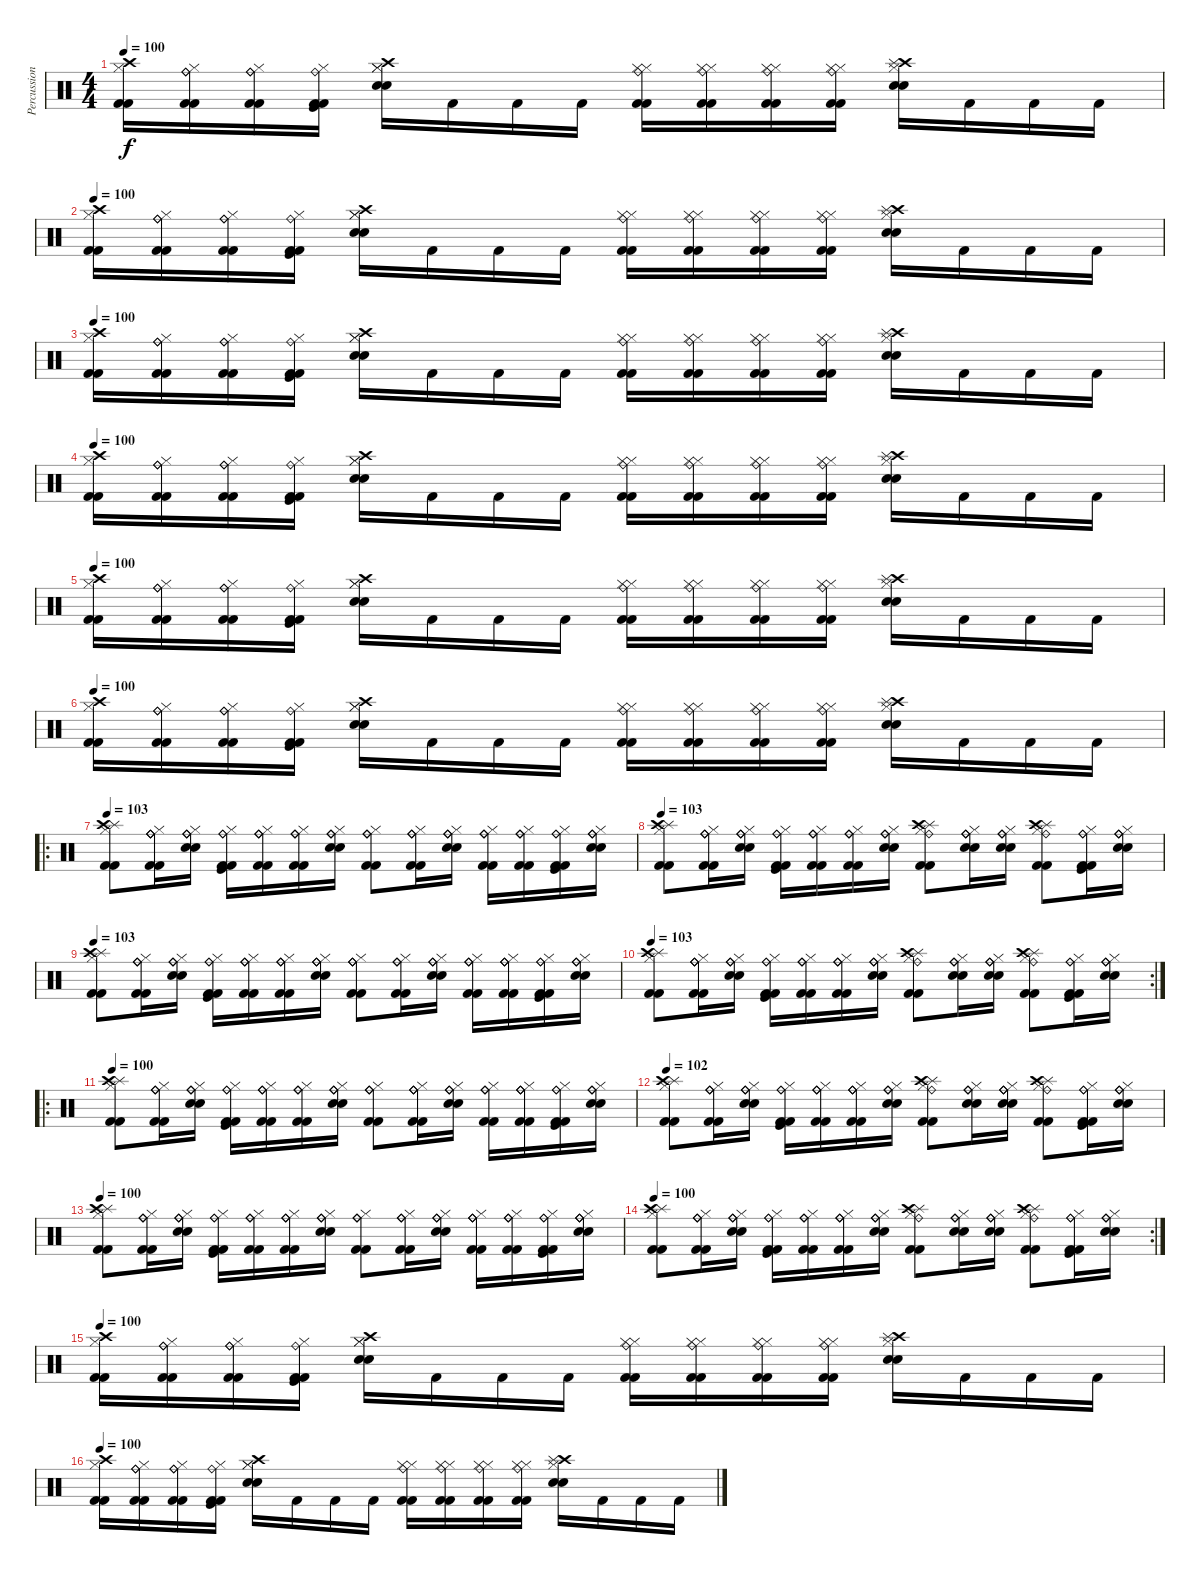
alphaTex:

\track ("Percussion" "Percussion") {instrument percussion}
\staff {score}
\articulation defaults
\ts (4 4)
\tempo 100
\clef neutral
\ks c
("Crash high (hit)" "Hi-Hat (closed)" "Kick (hit) 2" "Kick (hit) 2").16{dy f} ("Ride (bell)" "Ride (bell)" "Hi-Hat (closed)" "Kick (hit) 2" "Kick (hit) 2").16 ("Ride (bell)" "Ride (bell)" "Hi-Hat (closed)" "Kick (hit) 2" "Kick (hit) 2").16 ("Ride (bell)" "Kick (hit)" "Hi-Hat (closed)" "Kick (hit) 2" "Kick (hit) 2").16 ("Crash high (hit)" "Hi-Hat (closed)" "Hi-Hat (closed)" "Snare (hit) 2" "Snare (hit) 2").16 "Kick (hit) 2".16 "Kick (hit) 2".16 "Kick (hit) 2".16 ("Ride (bell)" "Hi-Hat (closed)" "Hi-Hat (closed)" "Kick (hit) 2" "Kick (hit) 2").16 ("Ride (bell)" "Hi-Hat (closed)" "Hi-Hat (closed)" "Kick (hit) 2" "Kick (hit) 2").16 ("Ride (bell)" "Hi-Hat (closed)" "Hi-Hat (closed)" "Kick (hit) 2" "Kick (hit) 2").16 ("Ride (bell)" "Hi-Hat (closed)" "Hi-Hat (closed)" "Kick (hit) 2" "Kick (hit) 2").16 ("Crash high (hit)" "Splash (hit)" "Hi-Hat (closed)" "Snare (hit) 2" "Snare (hit) 2").16 "Kick (hit) 2".16 "Kick (hit) 2".16 "Kick (hit) 2".16 |
\tempo 100
("Crash high (hit)" "Hi-Hat (closed)" "Kick (hit) 2" "Kick (hit) 2").16 ("Ride (bell)" "Ride (bell)" "Hi-Hat (closed)" "Kick (hit) 2" "Kick (hit) 2").16 ("Ride (bell)" "Ride (bell)" "Hi-Hat (closed)" "Kick (hit) 2" "Kick (hit) 2").16 ("Ride (bell)" "Kick (hit)" "Hi-Hat (closed)" "Kick (hit) 2" "Kick (hit) 2").16 ("Crash high (hit)" "Hi-Hat (closed)" "Hi-Hat (closed)" "Snare (hit) 2" "Snare (hit) 2").16 "Kick (hit) 2".16 "Kick (hit) 2".16 "Kick (hit) 2".16 ("Ride (bell)" "Hi-Hat (closed)" "Hi-Hat (closed)" "Kick (hit) 2" "Kick (hit) 2").16 ("Ride (bell)" "Hi-Hat (closed)" "Hi-Hat (closed)" "Kick (hit) 2" "Kick (hit) 2").16 ("Ride (bell)" "Hi-Hat (closed)" "Hi-Hat (closed)" "Kick (hit) 2" "Kick (hit) 2").16 ("Ride (bell)" "Hi-Hat (closed)" "Hi-Hat (closed)" "Kick (hit) 2" "Kick (hit) 2").16 ("Crash high (hit)" "Splash (hit)" "Hi-Hat (closed)" "Snare (hit) 2" "Snare (hit) 2").16 "Kick (hit) 2".16 "Kick (hit) 2".16 "Kick (hit) 2".16 |
\tempo 100
("Crash high (hit)" "Hi-Hat (closed)" "Kick (hit) 2" "Kick (hit) 2").16 ("Ride (bell)" "Ride (bell)" "Hi-Hat (closed)" "Kick (hit) 2" "Kick (hit) 2").16 ("Ride (bell)" "Ride (bell)" "Hi-Hat (closed)" "Kick (hit) 2" "Kick (hit) 2").16 ("Ride (bell)" "Kick (hit)" "Hi-Hat (closed)" "Kick (hit) 2" "Kick (hit) 2").16 ("Crash high (hit)" "Hi-Hat (closed)" "Hi-Hat (closed)" "Snare (hit) 2" "Snare (hit) 2").16 "Kick (hit) 2".16 "Kick (hit) 2".16 "Kick (hit) 2".16 ("Ride (bell)" "Hi-Hat (closed)" "Hi-Hat (closed)" "Kick (hit) 2" "Kick (hit) 2").16 ("Ride (bell)" "Hi-Hat (closed)" "Hi-Hat (closed)" "Kick (hit) 2" "Kick (hit) 2").16 ("Ride (bell)" "Hi-Hat (closed)" "Hi-Hat (closed)" "Kick (hit) 2" "Kick (hit) 2").16 ("Ride (bell)" "Hi-Hat (closed)" "Hi-Hat (closed)" "Kick (hit) 2" "Kick (hit) 2").16 ("Crash high (hit)" "Splash (hit)" "Hi-Hat (closed)" "Snare (hit) 2" "Snare (hit) 2").16 "Kick (hit) 2".16 "Kick (hit) 2".16 "Kick (hit) 2".16 |
\tempo 100
("Crash high (hit)" "Hi-Hat (closed)" "Kick (hit) 2" "Kick (hit) 2").16 ("Ride (bell)" "Ride (bell)" "Hi-Hat (closed)" "Kick (hit) 2" "Kick (hit) 2").16 ("Ride (bell)" "Ride (bell)" "Hi-Hat (closed)" "Kick (hit) 2" "Kick (hit) 2").16 ("Ride (bell)" "Kick (hit)" "Hi-Hat (closed)" "Kick (hit) 2" "Kick (hit) 2").16 ("Crash high (hit)" "Hi-Hat (closed)" "Hi-Hat (closed)" "Snare (hit) 2" "Snare (hit) 2").16 "Kick (hit) 2".16 "Kick (hit) 2".16 "Kick (hit) 2".16 ("Ride (bell)" "Hi-Hat (closed)" "Hi-Hat (closed)" "Kick (hit) 2" "Kick (hit) 2").16 ("Ride (bell)" "Hi-Hat (closed)" "Hi-Hat (closed)" "Kick (hit) 2" "Kick (hit) 2").16 ("Ride (bell)" "Hi-Hat (closed)" "Hi-Hat (closed)" "Kick (hit) 2" "Kick (hit) 2").16 ("Ride (bell)" "Hi-Hat (closed)" "Hi-Hat (closed)" "Kick (hit) 2" "Kick (hit) 2").16 ("Crash high (hit)" "Splash (hit)" "Hi-Hat (closed)" "Snare (hit) 2" "Snare (hit) 2").16 "Kick (hit) 2".16 "Kick (hit) 2".16 "Kick (hit) 2".16 |
\tempo 100
("Crash high (hit)" "Hi-Hat (closed)" "Kick (hit) 2" "Kick (hit) 2").16 ("Ride (bell)" "Ride (bell)" "Hi-Hat (closed)" "Kick (hit) 2" "Kick (hit) 2").16 ("Ride (bell)" "Ride (bell)" "Hi-Hat (closed)" "Kick (hit) 2" "Kick (hit) 2").16 ("Ride (bell)" "Kick (hit)" "Hi-Hat (closed)" "Kick (hit) 2" "Kick (hit) 2").16 ("Crash high (hit)" "Hi-Hat (closed)" "Hi-Hat (closed)" "Snare (hit) 2" "Snare (hit) 2").16 "Kick (hit) 2".16 "Kick (hit) 2".16 "Kick (hit) 2".16 ("Ride (bell)" "Hi-Hat (closed)" "Hi-Hat (closed)" "Kick (hit) 2" "Kick (hit) 2").16 ("Ride (bell)" "Hi-Hat (closed)" "Hi-Hat (closed)" "Kick (hit) 2" "Kick (hit) 2").16 ("Ride (bell)" "Hi-Hat (closed)" "Hi-Hat (closed)" "Kick (hit) 2" "Kick (hit) 2").16 ("Ride (bell)" "Hi-Hat (closed)" "Hi-Hat (closed)" "Kick (hit) 2" "Kick (hit) 2").16 ("Crash high (hit)" "Splash (hit)" "Hi-Hat (closed)" "Snare (hit) 2" "Snare (hit) 2").16 "Kick (hit) 2".16 "Kick (hit) 2".16 "Kick (hit) 2".16 |
\tempo 100
("Crash high (hit)" "Hi-Hat (closed)" "Kick (hit) 2" "Kick (hit) 2").16 ("Ride (bell)" "Ride (bell)" "Hi-Hat (closed)" "Kick (hit) 2" "Kick (hit) 2").16 ("Ride (bell)" "Ride (bell)" "Hi-Hat (closed)" "Kick (hit) 2" "Kick (hit) 2").16 ("Ride (bell)" "Kick (hit)" "Hi-Hat (closed)" "Kick (hit) 2" "Kick (hit) 2").16 ("Crash high (hit)" "Hi-Hat (closed)" "Hi-Hat (closed)" "Snare (hit) 2" "Snare (hit) 2").16 "Kick (hit) 2".16 "Kick (hit) 2".16 "Kick (hit) 2".16 ("Ride (bell)" "Hi-Hat (closed)" "Hi-Hat (closed)" "Kick (hit) 2" "Kick (hit) 2").16 ("Ride (bell)" "Hi-Hat (closed)" "Hi-Hat (closed)" "Kick (hit) 2" "Kick (hit) 2").16 ("Ride (bell)" "Hi-Hat (closed)" "Hi-Hat (closed)" "Kick (hit) 2" "Kick (hit) 2").16 ("Ride (bell)" "Hi-Hat (closed)" "Hi-Hat (closed)" "Kick (hit) 2" "Kick (hit) 2").16 ("Crash high (hit)" "Splash (hit)" "Hi-Hat (closed)" "Snare (hit) 2" "Snare (hit) 2").16 "Kick (hit) 2".16 "Kick (hit) 2".16 "Kick (hit) 2".16 |
\ro
\tempo 103
("Splash (hit)" "Crash high (hit)" "Hi-Hat (closed)" "Kick (hit) 2" "Kick (hit) 2").8 ("Ride (bell)" "Ride (bell)" "Ride (bell)" "Hi-Hat (closed)" "Kick (hit) 2" "Kick (hit) 2").16 ("Ride (bell)" "Ride (bell)" "Ride (bell)" "Hi-Hat (closed)" "Snare (hit) 2" "Snare (hit) 2").16 ("Ride (bell)" "Ride (bell)" "Kick (hit)" "Hi-Hat (closed)" "Kick (hit) 2" "Kick (hit) 2").16 ("Ride (bell)" "Ride (bell)" "Ride (bell)" "Hi-Hat (closed)" "Kick (hit) 2" "Kick (hit) 2").16 ("Ride (bell)" "Ride (bell)" "Ride (bell)" "Hi-Hat (closed)" "Kick (hit) 2" "Kick (hit) 2").16 ("Ride (bell)" "Ride (bell)" "Ride (bell)" "Hi-Hat (closed)" "Snare (hit) 2" "Snare (hit) 2").16 ("Ride (bell)" "Ride (bell)" "Ride (bell)" "Hi-Hat (closed)" "Kick (hit) 2" "Kick (hit) 2").8 ("Ride (bell)" "Ride (bell)" "Ride (bell)" "Hi-Hat (closed)" "Kick (hit) 2" "Kick (hit) 2").16 ("Ride (bell)" "Ride (bell)" "Ride (bell)" "Hi-Hat (closed)" "Snare (hit) 2" "Snare (hit) 2").16 ("Ride (bell)" "Ride (bell)" "Ride (bell)" "Hi-Hat (closed)" "Kick (hit) 2" "Kick (hit) 2").16 ("Ride (bell)" "Ride (bell)" "Ride (bell)" "Hi-Hat (closed)" "Kick (hit) 2" "Kick (hit) 2").16 ("Kick (hit)" "Ride (bell)" "Ride (bell)" "Hi-Hat (closed)" "Kick (hit) 2" "Kick (hit) 2").16 ("Ride (bell)" "Ride (bell)" "Ride (bell)" "Hi-Hat (closed)" "Snare (hit) 2" "Snare (hit) 2").16 |
\tempo 103
("Splash (hit)" "Crash high (hit)" "Hi-Hat (closed)" "Kick (hit) 2" "Kick (hit) 2").8 ("Ride (bell)" "Ride (bell)" "Ride (bell)" "Hi-Hat (closed)" "Kick (hit) 2" "Kick (hit) 2").16 ("Ride (bell)" "Ride (bell)" "Ride (bell)" "Hi-Hat (closed)" "Snare (hit) 2" "Snare (hit) 2").16 ("Ride (bell)" "Ride (bell)" "Kick (hit)" "Hi-Hat (closed)" "Kick (hit) 2" "Kick (hit) 2").16 ("Ride (bell)" "Ride (bell)" "Ride (bell)" "Hi-Hat (closed)" "Kick (hit) 2" "Kick (hit) 2").16 ("Ride (bell)" "Ride (bell)" "Ride (bell)" "Hi-Hat (closed)" "Kick (hit) 2" "Kick (hit) 2").16 ("Ride (bell)" "Ride (bell)" "Ride (bell)" "Hi-Hat (closed)" "Snare (hit) 2" "Snare (hit) 2").16 ("Splash (hit)" "Ride (bell)" "Crash high (hit)" "Hi-Hat (closed)" "Kick (hit) 2" "Kick (hit) 2").8 ("Ride (bell)" "Ride (bell)" "Ride (bell)" "Hi-Hat (closed)" "Snare (hit) 2" "Snare (hit) 2").16 ("Ride (bell)" "Ride (bell)" "Ride (bell)" "Hi-Hat (closed)" "Snare (hit) 2" "Snare (hit) 2").16 ("Splash (hit)" "Ride (bell)" "Crash high (hit)" "Hi-Hat (closed)" "Kick (hit) 2" "Kick (hit) 2").8 ("Kick (hit)" "Ride (bell)" "Ride (bell)" "Hi-Hat (closed)" "Kick (hit) 2" "Kick (hit) 2").16 ("Ride (bell)" "Ride (bell)" "Ride (bell)" "Hi-Hat (closed)" "Snare (hit) 2" "Snare (hit) 2").16 |
\tempo 103
("Splash (hit)" "Crash high (hit)" "Hi-Hat (closed)" "Kick (hit) 2" "Kick (hit) 2").8 ("Ride (bell)" "Ride (bell)" "Ride (bell)" "Hi-Hat (closed)" "Kick (hit) 2" "Kick (hit) 2").16 ("Ride (bell)" "Ride (bell)" "Ride (bell)" "Hi-Hat (closed)" "Snare (hit) 2" "Snare (hit) 2").16 ("Ride (bell)" "Ride (bell)" "Kick (hit)" "Hi-Hat (closed)" "Kick (hit) 2" "Kick (hit) 2").16 ("Ride (bell)" "Ride (bell)" "Ride (bell)" "Hi-Hat (closed)" "Kick (hit) 2" "Kick (hit) 2").16 ("Ride (bell)" "Ride (bell)" "Ride (bell)" "Hi-Hat (closed)" "Kick (hit) 2" "Kick (hit) 2").16 ("Ride (bell)" "Ride (bell)" "Ride (bell)" "Hi-Hat (closed)" "Snare (hit) 2" "Snare (hit) 2").16 ("Ride (bell)" "Ride (bell)" "Ride (bell)" "Hi-Hat (closed)" "Kick (hit) 2" "Kick (hit) 2").8 ("Ride (bell)" "Ride (bell)" "Ride (bell)" "Hi-Hat (closed)" "Kick (hit) 2" "Kick (hit) 2").16 ("Ride (bell)" "Ride (bell)" "Ride (bell)" "Hi-Hat (closed)" "Snare (hit) 2" "Snare (hit) 2").16 ("Ride (bell)" "Ride (bell)" "Ride (bell)" "Hi-Hat (closed)" "Kick (hit) 2" "Kick (hit) 2").16 ("Ride (bell)" "Ride (bell)" "Ride (bell)" "Hi-Hat (closed)" "Kick (hit) 2" "Kick (hit) 2").16 ("Kick (hit)" "Ride (bell)" "Ride (bell)" "Hi-Hat (closed)" "Kick (hit) 2" "Kick (hit) 2").16 ("Ride (bell)" "Ride (bell)" "Ride (bell)" "Hi-Hat (closed)" "Snare (hit) 2" "Snare (hit) 2").16 |
\rc 2
\tempo 103
("Splash (hit)" "Crash high (hit)" "Hi-Hat (closed)" "Kick (hit) 2" "Kick (hit) 2").8 ("Ride (bell)" "Ride (bell)" "Ride (bell)" "Hi-Hat (closed)" "Kick (hit) 2" "Kick (hit) 2").16 ("Ride (bell)" "Ride (bell)" "Ride (bell)" "Hi-Hat (closed)" "Snare (hit) 2" "Snare (hit) 2").16 ("Ride (bell)" "Ride (bell)" "Kick (hit)" "Hi-Hat (closed)" "Kick (hit) 2" "Kick (hit) 2").16 ("Ride (bell)" "Ride (bell)" "Ride (bell)" "Hi-Hat (closed)" "Kick (hit) 2" "Kick (hit) 2").16 ("Ride (bell)" "Ride (bell)" "Ride (bell)" "Hi-Hat (closed)" "Kick (hit) 2" "Kick (hit) 2").16 ("Ride (bell)" "Ride (bell)" "Ride (bell)" "Hi-Hat (closed)" "Snare (hit) 2" "Snare (hit) 2").16 ("Splash (hit)" "Ride (bell)" "Crash high (hit)" "Hi-Hat (closed)" "Kick (hit) 2" "Kick (hit) 2").8 ("Ride (bell)" "Ride (bell)" "Ride (bell)" "Hi-Hat (closed)" "Snare (hit) 2" "Snare (hit) 2").16 ("Ride (bell)" "Ride (bell)" "Ride (bell)" "Hi-Hat (closed)" "Snare (hit) 2" "Snare (hit) 2").16 ("Splash (hit)" "Ride (bell)" "Crash high (hit)" "Hi-Hat (closed)" "Kick (hit) 2" "Kick (hit) 2").8 ("Kick (hit)" "Ride (bell)" "Ride (bell)" "Hi-Hat (closed)" "Kick (hit) 2" "Kick (hit) 2").16 ("Ride (bell)" "Ride (bell)" "Ride (bell)" "Hi-Hat (closed)" "Snare (hit) 2" "Snare (hit) 2").16 |
\ro
\tempo 100
("Splash (hit)" "Crash high (hit)" "Hi-Hat (closed)" "Kick (hit) 2" "Kick (hit) 2").8 ("Ride (bell)" "Ride (bell)" "Ride (bell)" "Hi-Hat (closed)" "Kick (hit) 2" "Kick (hit) 2").16 ("Ride (bell)" "Ride (bell)" "Ride (bell)" "Hi-Hat (closed)" "Snare (hit) 2" "Snare (hit) 2").16 ("Ride (bell)" "Ride (bell)" "Kick (hit)" "Hi-Hat (closed)" "Kick (hit) 2" "Kick (hit) 2").16 ("Ride (bell)" "Ride (bell)" "Ride (bell)" "Hi-Hat (closed)" "Kick (hit) 2" "Kick (hit) 2").16 ("Ride (bell)" "Ride (bell)" "Ride (bell)" "Hi-Hat (closed)" "Kick (hit) 2" "Kick (hit) 2").16 ("Ride (bell)" "Ride (bell)" "Ride (bell)" "Hi-Hat (closed)" "Snare (hit) 2" "Snare (hit) 2").16 ("Ride (bell)" "Ride (bell)" "Ride (bell)" "Hi-Hat (closed)" "Kick (hit) 2" "Kick (hit) 2").8 ("Ride (bell)" "Ride (bell)" "Ride (bell)" "Hi-Hat (closed)" "Kick (hit) 2" "Kick (hit) 2").16 ("Ride (bell)" "Ride (bell)" "Ride (bell)" "Hi-Hat (closed)" "Snare (hit) 2" "Snare (hit) 2").16 ("Ride (bell)" "Ride (bell)" "Ride (bell)" "Hi-Hat (closed)" "Kick (hit) 2" "Kick (hit) 2").16 ("Ride (bell)" "Ride (bell)" "Ride (bell)" "Hi-Hat (closed)" "Kick (hit) 2" "Kick (hit) 2").16 ("Kick (hit)" "Ride (bell)" "Ride (bell)" "Hi-Hat (closed)" "Kick (hit) 2" "Kick (hit) 2").16 ("Ride (bell)" "Ride (bell)" "Ride (bell)" "Hi-Hat (closed)" "Snare (hit) 2" "Snare (hit) 2").16 |
\tempo 102
("Splash (hit)" "Crash high (hit)" "Hi-Hat (closed)" "Kick (hit) 2" "Kick (hit) 2").8 ("Ride (bell)" "Ride (bell)" "Ride (bell)" "Hi-Hat (closed)" "Kick (hit) 2" "Kick (hit) 2").16 ("Ride (bell)" "Ride (bell)" "Ride (bell)" "Hi-Hat (closed)" "Snare (hit) 2" "Snare (hit) 2").16 ("Ride (bell)" "Ride (bell)" "Kick (hit)" "Hi-Hat (closed)" "Kick (hit) 2" "Kick (hit) 2").16 ("Ride (bell)" "Ride (bell)" "Ride (bell)" "Hi-Hat (closed)" "Kick (hit) 2" "Kick (hit) 2").16 ("Ride (bell)" "Ride (bell)" "Ride (bell)" "Hi-Hat (closed)" "Kick (hit) 2" "Kick (hit) 2").16 ("Ride (bell)" "Ride (bell)" "Ride (bell)" "Hi-Hat (closed)" "Snare (hit) 2" "Snare (hit) 2").16 ("Splash (hit)" "Ride (bell)" "Crash high (hit)" "Hi-Hat (closed)" "Kick (hit) 2" "Kick (hit) 2").8 ("Ride (bell)" "Ride (bell)" "Ride (bell)" "Hi-Hat (closed)" "Snare (hit) 2" "Snare (hit) 2").16 ("Ride (bell)" "Ride (bell)" "Ride (bell)" "Hi-Hat (closed)" "Snare (hit) 2" "Snare (hit) 2").16 ("Splash (hit)" "Ride (bell)" "Crash high (hit)" "Hi-Hat (closed)" "Kick (hit) 2" "Kick (hit) 2").8 ("Kick (hit)" "Ride (bell)" "Ride (bell)" "Hi-Hat (closed)" "Kick (hit) 2" "Kick (hit) 2").16 ("Ride (bell)" "Ride (bell)" "Ride (bell)" "Hi-Hat (closed)" "Snare (hit) 2" "Snare (hit) 2").16 |
\tempo 100
("Splash (hit)" "Crash high (hit)" "Hi-Hat (closed)" "Kick (hit) 2" "Kick (hit) 2").8 ("Ride (bell)" "Ride (bell)" "Ride (bell)" "Hi-Hat (closed)" "Kick (hit) 2" "Kick (hit) 2").16 ("Ride (bell)" "Ride (bell)" "Ride (bell)" "Hi-Hat (closed)" "Snare (hit) 2" "Snare (hit) 2").16 ("Ride (bell)" "Ride (bell)" "Kick (hit)" "Hi-Hat (closed)" "Kick (hit) 2" "Kick (hit) 2").16 ("Ride (bell)" "Ride (bell)" "Ride (bell)" "Hi-Hat (closed)" "Kick (hit) 2" "Kick (hit) 2").16 ("Ride (bell)" "Ride (bell)" "Ride (bell)" "Hi-Hat (closed)" "Kick (hit) 2" "Kick (hit) 2").16 ("Ride (bell)" "Ride (bell)" "Ride (bell)" "Hi-Hat (closed)" "Snare (hit) 2" "Snare (hit) 2").16 ("Ride (bell)" "Ride (bell)" "Ride (bell)" "Hi-Hat (closed)" "Kick (hit) 2" "Kick (hit) 2").8 ("Ride (bell)" "Ride (bell)" "Ride (bell)" "Hi-Hat (closed)" "Kick (hit) 2" "Kick (hit) 2").16 ("Ride (bell)" "Ride (bell)" "Ride (bell)" "Hi-Hat (closed)" "Snare (hit) 2" "Snare (hit) 2").16 ("Ride (bell)" "Ride (bell)" "Ride (bell)" "Hi-Hat (closed)" "Kick (hit) 2" "Kick (hit) 2").16 ("Ride (bell)" "Ride (bell)" "Ride (bell)" "Hi-Hat (closed)" "Kick (hit) 2" "Kick (hit) 2").16 ("Kick (hit)" "Ride (bell)" "Ride (bell)" "Hi-Hat (closed)" "Kick (hit) 2" "Kick (hit) 2").16 ("Ride (bell)" "Ride (bell)" "Ride (bell)" "Hi-Hat (closed)" "Snare (hit) 2" "Snare (hit) 2").16 |
\rc 2
\tempo 100
("Splash (hit)" "Crash high (hit)" "Hi-Hat (closed)" "Kick (hit) 2" "Kick (hit) 2").8 ("Ride (bell)" "Ride (bell)" "Ride (bell)" "Hi-Hat (closed)" "Kick (hit) 2" "Kick (hit) 2").16 ("Ride (bell)" "Ride (bell)" "Ride (bell)" "Hi-Hat (closed)" "Snare (hit) 2" "Snare (hit) 2").16 ("Ride (bell)" "Ride (bell)" "Kick (hit)" "Hi-Hat (closed)" "Kick (hit) 2" "Kick (hit) 2").16 ("Ride (bell)" "Ride (bell)" "Ride (bell)" "Hi-Hat (closed)" "Kick (hit) 2" "Kick (hit) 2").16 ("Ride (bell)" "Ride (bell)" "Ride (bell)" "Hi-Hat (closed)" "Kick (hit) 2" "Kick (hit) 2").16 ("Ride (bell)" "Ride (bell)" "Ride (bell)" "Hi-Hat (closed)" "Snare (hit) 2" "Snare (hit) 2").16 ("Splash (hit)" "Ride (bell)" "Crash high (hit)" "Hi-Hat (closed)" "Kick (hit) 2" "Kick (hit) 2").8 ("Ride (bell)" "Ride (bell)" "Ride (bell)" "Hi-Hat (closed)" "Snare (hit) 2" "Snare (hit) 2").16 ("Ride (bell)" "Ride (bell)" "Ride (bell)" "Hi-Hat (closed)" "Snare (hit) 2" "Snare (hit) 2").16 ("Splash (hit)" "Ride (bell)" "Crash high (hit)" "Hi-Hat (closed)" "Kick (hit) 2" "Kick (hit) 2").8 ("Kick (hit)" "Ride (bell)" "Ride (bell)" "Hi-Hat (closed)" "Kick (hit) 2" "Kick (hit) 2").16 ("Ride (bell)" "Ride (bell)" "Ride (bell)" "Hi-Hat (closed)" "Snare (hit) 2" "Snare (hit) 2").16 |
\tempo 100
("Crash high (hit)" "Hi-Hat (closed)" "Kick (hit) 2" "Kick (hit) 2").16 ("Ride (bell)" "Ride (bell)" "Hi-Hat (closed)" "Kick (hit) 2" "Kick (hit) 2").16 ("Ride (bell)" "Ride (bell)" "Hi-Hat (closed)" "Kick (hit) 2" "Kick (hit) 2").16 ("Ride (bell)" "Kick (hit)" "Hi-Hat (closed)" "Kick (hit) 2" "Kick (hit) 2").16 ("Crash high (hit)" "Hi-Hat (closed)" "Hi-Hat (closed)" "Snare (hit) 2" "Snare (hit) 2").16 "Kick (hit) 2".16 "Kick (hit) 2".16 "Kick (hit) 2".16 ("Ride (bell)" "Hi-Hat (closed)" "Hi-Hat (closed)" "Kick (hit) 2" "Kick (hit) 2").16 ("Ride (bell)" "Hi-Hat (closed)" "Hi-Hat (closed)" "Kick (hit) 2" "Kick (hit) 2").16 ("Ride (bell)" "Hi-Hat (closed)" "Hi-Hat (closed)" "Kick (hit) 2" "Kick (hit) 2").16 ("Ride (bell)" "Hi-Hat (closed)" "Hi-Hat (closed)" "Kick (hit) 2" "Kick (hit) 2").16 ("Crash high (hit)" "Splash (hit)" "Hi-Hat (closed)" "Snare (hit) 2" "Snare (hit) 2").16 "Kick (hit) 2".16 "Kick (hit) 2".16 "Kick (hit) 2".16 |
\tempo 100
("Crash high (hit)" "Hi-Hat (closed)" "Kick (hit) 2" "Kick (hit) 2").16 ("Ride (bell)" "Ride (bell)" "Hi-Hat (closed)" "Kick (hit) 2" "Kick (hit) 2").16 ("Ride (bell)" "Ride (bell)" "Hi-Hat (closed)" "Kick (hit) 2" "Kick (hit) 2").16 ("Ride (bell)" "Kick (hit)" "Hi-Hat (closed)" "Kick (hit) 2" "Kick (hit) 2").16 ("Crash high (hit)" "Hi-Hat (closed)" "Hi-Hat (closed)" "Snare (hit) 2" "Snare (hit) 2").16 "Kick (hit) 2".16 "Kick (hit) 2".16 "Kick (hit) 2".16 ("Ride (bell)" "Hi-Hat (closed)" "Hi-Hat (closed)" "Kick (hit) 2" "Kick (hit) 2").16 ("Ride (bell)" "Hi-Hat (closed)" "Hi-Hat (closed)" "Kick (hit) 2" "Kick (hit) 2").16 ("Ride (bell)" "Hi-Hat (closed)" "Hi-Hat (closed)" "Kick (hit) 2" "Kick (hit) 2").16 ("Ride (bell)" "Hi-Hat (closed)" "Hi-Hat (closed)" "Kick (hit) 2" "Kick (hit) 2").16 ("Crash high (hit)" "Splash (hit)" "Hi-Hat (closed)" "Snare (hit) 2" "Snare (hit) 2").16 "Kick (hit) 2".16 "Kick (hit) 2".16 "Kick (hit) 2".16
